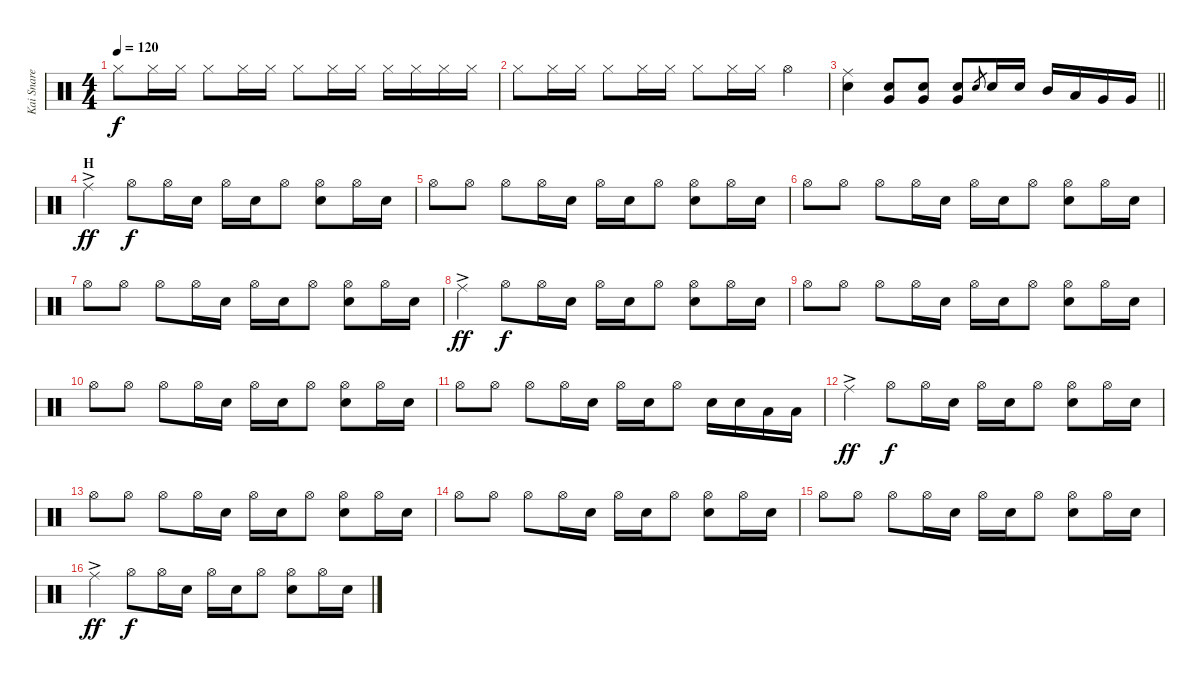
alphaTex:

\track ("Kai Snare" "Kai Snare") {instrument percussion}
\staff {score}
\articulation defaults
\ts (4 4)
\tempo 120
\clef neutral
\ks c "Hi-Hat (closed)".8{dy f} "Hi-Hat (closed)".16 "Hi-Hat (closed)".16 "Hi-Hat (closed)".8 "Hi-Hat (closed)".16 "Hi-Hat (closed)".16 "Hi-Hat (closed)".8 "Hi-Hat (closed)".16 "Hi-Hat (closed)".16 "Hi-Hat (closed)".16 "Hi-Hat (closed)".16 "Hi-Hat (closed)".16 "Hi-Hat (closed)".16
|
"Hi-Hat (closed)".8 "Hi-Hat (closed)".16 "Hi-Hat (closed)".16 "Hi-Hat (closed)".8 "Hi-Hat (closed)".16 "Hi-Hat (closed)".16 "Hi-Hat (closed)".8 "Hi-Hat (closed)".16 "Hi-Hat (closed)".16 "Hi-Hat (open)".4 |
\barLineRight lightlight
("Ride (middle)" "Snare (hit) 2").4 ("Very Low Tom (hit)" "Snare (hit) 2").8 ("Very Low Tom (hit)" "Snare (hit) 2").8 ("Very Low Tom (hit)" "Snare (hit) 2").8 "Snare (hit) 2".8{gr} "Snare (hit) 2".16 "Snare (hit) 2".16 "Mid Tom (hit)".16 "Low Tom (hit)".16 "Very Low Tom (hit)".16 "Very Low Tom (hit)".16 |
\section ("" "H")
"Ride (middle)"{ac}.4{dy ff} "Hi-Hat (open)".8{dy f} "Hi-Hat (open)".16 "Snare (hit) 2".16 "Hi-Hat (open)".16 "Snare (hit) 2".16 "Hi-Hat (open)".8 ("Hi-Hat (open)" "Snare (hit) 2").8 "Hi-Hat (open)".16 "Snare (hit) 2".16 |
"Hi-Hat (open)".8 "Hi-Hat (open)".8 "Hi-Hat (open)".8 "Hi-Hat (open)".16 "Snare (hit) 2".16 "Hi-Hat (open)".16 "Snare (hit) 2".16 "Hi-Hat (open)".8 ("Hi-Hat (open)" "Snare (hit) 2").8 "Hi-Hat (open)".16 "Snare (hit) 2".16 |
"Hi-Hat (open)".8 "Hi-Hat (open)".8 "Hi-Hat (open)".8 "Hi-Hat (open)".16 "Snare (hit) 2".16 "Hi-Hat (open)".16 "Snare (hit) 2".16 "Hi-Hat (open)".8 ("Hi-Hat (open)" "Snare (hit) 2").8 "Hi-Hat (open)".16 "Snare (hit) 2".16 |
"Hi-Hat (open)".8 "Hi-Hat (open)".8 "Hi-Hat (open)".8 "Hi-Hat (open)".16 "Snare (hit) 2".16 "Hi-Hat (open)".16 "Snare (hit) 2".16 "Hi-Hat (open)".8 ("Hi-Hat (open)" "Snare (hit) 2").8 "Hi-Hat (open)".16 "Snare (hit) 2".16 |
"Ride (middle)"{ac}.4{dy ff} "Hi-Hat (open)".8{dy f} "Hi-Hat (open)".16 "Snare (hit) 2".16 "Hi-Hat (open)".16 "Snare (hit) 2".16 "Hi-Hat (open)".8 ("Hi-Hat (open)" "Snare (hit) 2").8 "Hi-Hat (open)".16 "Snare (hit) 2".16 |
"Hi-Hat (open)".8 "Hi-Hat (open)".8 "Hi-Hat (open)".8 "Hi-Hat (open)".16 "Snare (hit) 2".16 "Hi-Hat (open)".16 "Snare (hit) 2".16 "Hi-Hat (open)".8 ("Hi-Hat (open)" "Snare (hit) 2").8 "Hi-Hat (open)".16 "Snare (hit) 2".16 |
"Hi-Hat (open)".8 "Hi-Hat (open)".8 "Hi-Hat (open)".8 "Hi-Hat (open)".16 "Snare (hit) 2".16 "Hi-Hat (open)".16 "Snare (hit) 2".16 "Hi-Hat (open)".8 ("Hi-Hat (open)" "Snare (hit) 2").8 "Hi-Hat (open)".16 "Snare (hit) 2".16 |
"Hi-Hat (open)".8 "Hi-Hat (open)".8 "Hi-Hat (open)".8 "Hi-Hat (open)".16 "Snare (hit) 2".16 "Hi-Hat (open)".16 "Snare (hit) 2".16 "Hi-Hat (open)".8 "Snare (hit) 2".16 "Snare (hit) 2".16 "Low Tom (hit)".16 "Low Tom (hit)".16 |
"Ride (middle)"{ac}.4{dy ff} "Hi-Hat (open)".8{dy f} "Hi-Hat (open)".16 "Snare (hit) 2".16 "Hi-Hat (open)".16 "Snare (hit) 2".16 "Hi-Hat (open)".8 ("Hi-Hat (open)" "Snare (hit) 2").8 "Hi-Hat (open)".16 "Snare (hit) 2".16 |
"Hi-Hat (open)".8 "Hi-Hat (open)".8 "Hi-Hat (open)".8 "Hi-Hat (open)".16 "Snare (hit) 2".16 "Hi-Hat (open)".16 "Snare (hit) 2".16 "Hi-Hat (open)".8 ("Hi-Hat (open)" "Snare (hit) 2").8 "Hi-Hat (open)".16 "Snare (hit) 2".16 |
"Hi-Hat (open)".8 "Hi-Hat (open)".8 "Hi-Hat (open)".8 "Hi-Hat (open)".16 "Snare (hit) 2".16 "Hi-Hat (open)".16 "Snare (hit) 2".16 "Hi-Hat (open)".8 ("Hi-Hat (open)" "Snare (hit) 2").8 "Hi-Hat (open)".16 "Snare (hit) 2".16 |
"Hi-Hat (open)".8 "Hi-Hat (open)".8 "Hi-Hat (open)".8 "Hi-Hat (open)".16 "Snare (hit) 2".16 "Hi-Hat (open)".16 "Snare (hit) 2".16 "Hi-Hat (open)".8 ("Hi-Hat (open)" "Snare (hit) 2").8 "Hi-Hat (open)".16 "Snare (hit) 2".16 |
"Ride (middle)"{ac}.4{dy ff} "Hi-Hat (open)".8{dy f} "Hi-Hat (open)".16 "Snare (hit) 2".16 "Hi-Hat (open)".16 "Snare (hit) 2".16 "Hi-Hat (open)".8 ("Hi-Hat (open)" "Snare (hit) 2").8 "Hi-Hat (open)".16 "Snare (hit) 2".16
